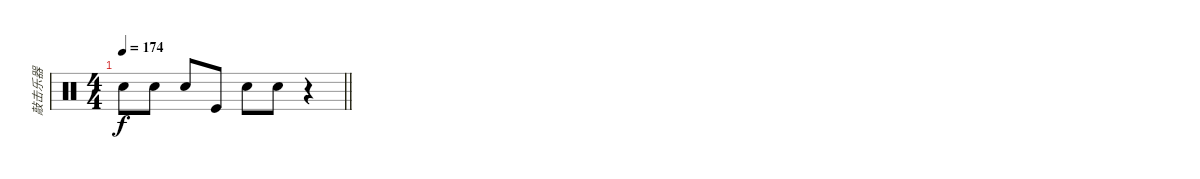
\track ("敲击乐器" "敲击乐器") {instrument percussion}
\staff {score}
\articulation defaults
\ts (4 4)
\tempo 174
\clef neutral
\barLineRight lightlight
\ks c "Snare (hit) 2".8{dy f} "Snare (hit) 2".8 "Snare (hit) 2".8 "Kick (hit)".8 "Snare (hit) 2".8 "Snare (hit) 2".8
r.4
